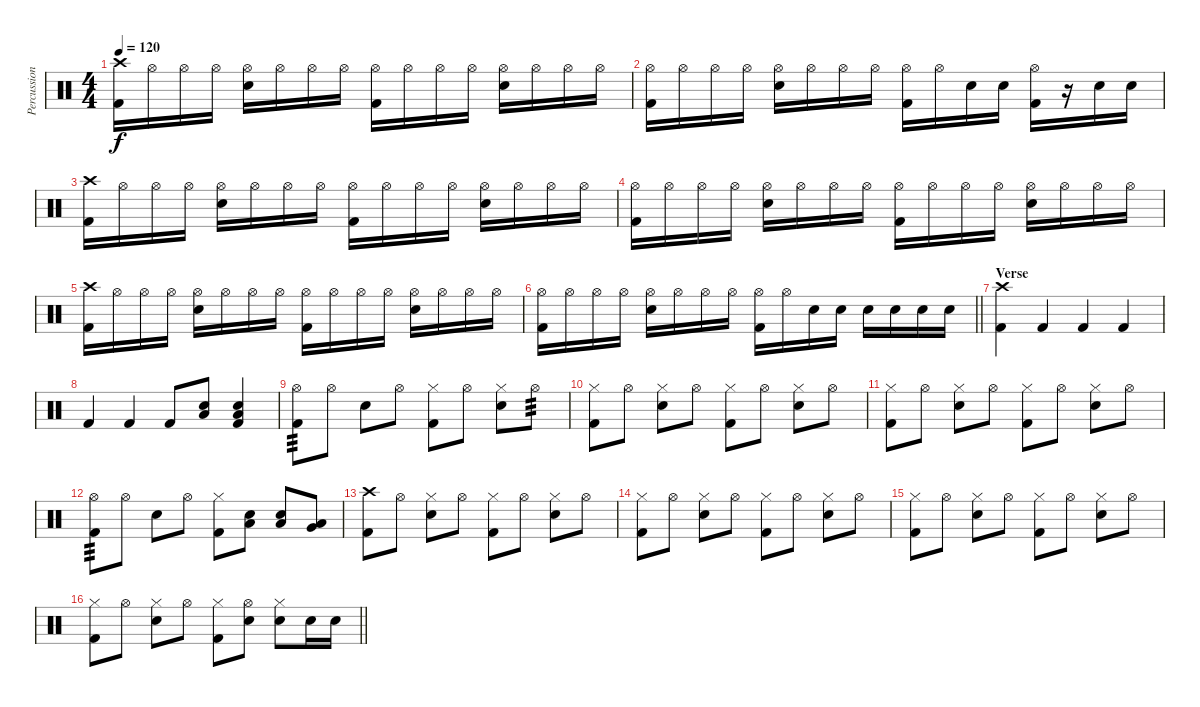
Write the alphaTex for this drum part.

\track ("Percussion" "Percussion") {instrument percussion}
\staff {score}
\articulation defaults
\ts (4 4)
\tempo 120
\clef neutral
\ks c
("Crash high (hit)" "Kick (hit) 2").16{dy f} "Hi-Hat (open)".16 "Hi-Hat (open)".16 "Hi-Hat (open)".16 ("Hi-Hat (open)" "Electric Snare (hit)").16 "Hi-Hat (open)".16 "Hi-Hat (open)".16 "Hi-Hat (open)".16 ("Hi-Hat (open)" "Kick (hit) 2").16 "Hi-Hat (open)".16 "Hi-Hat (open)".16 "Hi-Hat (open)".16 ("Hi-Hat (open)" "Electric Snare (hit)").16 "Hi-Hat (open)".16 "Hi-Hat (open)".16 "Hi-Hat (open)".16 |
("Hi-Hat (open)" "Kick (hit) 2").16 "Hi-Hat (open)".16 "Hi-Hat (open)".16 "Hi-Hat (open)".16 ("Hi-Hat (open)" "Electric Snare (hit)").16 "Hi-Hat (open)".16 "Hi-Hat (open)".16 "Hi-Hat (open)".16 ("Hi-Hat (open)" "Kick (hit) 2").16 "Hi-Hat (open)".16 "Electric Snare (hit)".16 "Electric Snare (hit)".16 ("Hi-Hat (open)" "Kick (hit) 2").16 r.16 "Electric Snare (hit)".16 "Electric Snare (hit)".16 |
("Crash high (hit)" "Kick (hit) 2").16 "Hi-Hat (open)".16 "Hi-Hat (open)".16 "Hi-Hat (open)".16 ("Hi-Hat (open)" "Electric Snare (hit)").16 "Hi-Hat (open)".16 "Hi-Hat (open)".16 "Hi-Hat (open)".16 ("Hi-Hat (open)" "Kick (hit) 2").16 "Hi-Hat (open)".16 "Hi-Hat (open)".16 "Hi-Hat (open)".16 ("Hi-Hat (open)" "Electric Snare (hit)").16 "Hi-Hat (open)".16 "Hi-Hat (open)".16 "Hi-Hat (open)".16 |
("Hi-Hat (open)" "Kick (hit) 2").16 "Hi-Hat (open)".16 "Hi-Hat (open)".16 "Hi-Hat (open)".16 ("Hi-Hat (open)" "Electric Snare (hit)").16 "Hi-Hat (open)".16 "Hi-Hat (open)".16 "Hi-Hat (open)".16 ("Hi-Hat (open)" "Kick (hit) 2").16 "Hi-Hat (open)".16 "Hi-Hat (open)".16 "Hi-Hat (open)".16 ("Hi-Hat (open)" "Electric Snare (hit)").16 "Hi-Hat (open)".16 "Hi-Hat (open)".16 "Hi-Hat (open)".16 |
("Crash high (hit)" "Kick (hit) 2").16 "Hi-Hat (open)".16 "Hi-Hat (open)".16 "Hi-Hat (open)".16 ("Hi-Hat (open)" "Electric Snare (hit)").16 "Hi-Hat (open)".16 "Hi-Hat (open)".16 "Hi-Hat (open)".16 ("Hi-Hat (open)" "Kick (hit) 2").16 "Hi-Hat (open)".16 "Hi-Hat (open)".16 "Hi-Hat (open)".16 ("Hi-Hat (open)" "Electric Snare (hit)").16 "Hi-Hat (open)".16 "Hi-Hat (open)".16 "Hi-Hat (open)".16 |
\barLineRight lightlight
("Hi-Hat (open)" "Kick (hit) 2").16 "Hi-Hat (open)".16 "Hi-Hat (open)".16 "Hi-Hat (open)".16 ("Hi-Hat (open)" "Electric Snare (hit)").16 "Hi-Hat (open)".16 "Hi-Hat (open)".16 "Hi-Hat (open)".16 ("Hi-Hat (open)" "Kick (hit) 2").16 "Hi-Hat (open)".16 "Electric Snare (hit)".16 "Electric Snare (hit)".16 "Electric Snare (hit)".16 "Electric Snare (hit)".16 "Electric Snare (hit)".16 "Electric Snare (hit)".16 |
\section ("" "Verse")
("Kick (hit) 2" "Crash high (hit)").4 "Kick (hit) 2".4 "Kick (hit) 2".4 "Kick (hit) 2".4 |
"Kick (hit) 2".4 "Kick (hit) 2".4 "Kick (hit) 2".8 ("Electric Snare (hit)" "Low Floor Tom (hit)").8 ("Kick (hit) 2" "Electric Snare (hit)" "Low Floor Tom (hit)").4 |
("Kick (hit) 2" "Hi-Hat (open)").8{tp 3} "Hi-Hat (open)".8 "Electric Snare (hit)".8 "Hi-Hat (open)".8 ("Kick (hit) 2" "Hi-Hat (closed)").8 "Hi-Hat (open)".8 ("Electric Snare (hit)" "Hi-Hat (closed)").8 "Hi-Hat (open)".8{tp 3} |
("Kick (hit) 2" "Hi-Hat (closed)").8 "Hi-Hat (open)".8 ("Electric Snare (hit)" "Hi-Hat (closed)").8 "Hi-Hat (open)".8 ("Kick (hit) 2" "Hi-Hat (closed)").8 "Hi-Hat (open)".8 ("Electric Snare (hit)" "Hi-Hat (closed)").8 "Hi-Hat (open)".8 |
("Kick (hit) 2" "Hi-Hat (closed)").8 "Hi-Hat (open)".8 ("Electric Snare (hit)" "Hi-Hat (closed)").8 "Hi-Hat (open)".8 ("Kick (hit) 2" "Hi-Hat (closed)").8 "Hi-Hat (open)".8 ("Electric Snare (hit)" "Hi-Hat (closed)").8 "Hi-Hat (open)".8 |
("Kick (hit) 2" "Hi-Hat (open)").8{tp 3} "Hi-Hat (open)".8 "Electric Snare (hit)".8 "Hi-Hat (open)".8 ("Kick (hit) 2" "Hi-Hat (closed)").8 ("Electric Snare (hit)" "Low Floor Tom (hit)").8 ("Electric Snare (hit)" "Low Floor Tom (hit)").8 ("Low Tom (hit)" "Very Low Tom (hit)").8 |
("Kick (hit) 2" "Crash high (hit)").8 "Hi-Hat (open)".8 ("Electric Snare (hit)" "Hi-Hat (closed)").8 "Hi-Hat (open)".8 ("Kick (hit) 2" "Hi-Hat (closed)").8 "Hi-Hat (open)".8 ("Electric Snare (hit)" "Hi-Hat (closed)").8 "Hi-Hat (open)".8 |
("Kick (hit) 2" "Hi-Hat (closed)").8 "Hi-Hat (open)".8 ("Electric Snare (hit)" "Hi-Hat (closed)").8 "Hi-Hat (open)".8 ("Kick (hit) 2" "Hi-Hat (closed)").8 "Hi-Hat (open)".8 ("Electric Snare (hit)" "Hi-Hat (closed)").8 "Hi-Hat (open)".8 |
("Kick (hit) 2" "Hi-Hat (closed)").8 "Hi-Hat (open)".8 ("Electric Snare (hit)" "Hi-Hat (closed)").8 "Hi-Hat (open)".8 ("Kick (hit) 2" "Hi-Hat (closed)").8 "Hi-Hat (open)".8 ("Electric Snare (hit)" "Hi-Hat (closed)").8 "Hi-Hat (open)".8 |
\barLineRight lightlight
("Kick (hit) 2" "Hi-Hat (closed)").8 "Hi-Hat (open)".8 ("Electric Snare (hit)" "Hi-Hat (closed)").8 "Hi-Hat (open)".8 ("Kick (hit) 2" "Hi-Hat (closed)").8 ("Electric Snare (hit)" "Hi-Hat (open)").8 ("Electric Snare (hit)" "Hi-Hat (closed)").8 "Electric Snare (hit)".16 "Electric Snare (hit)".16
